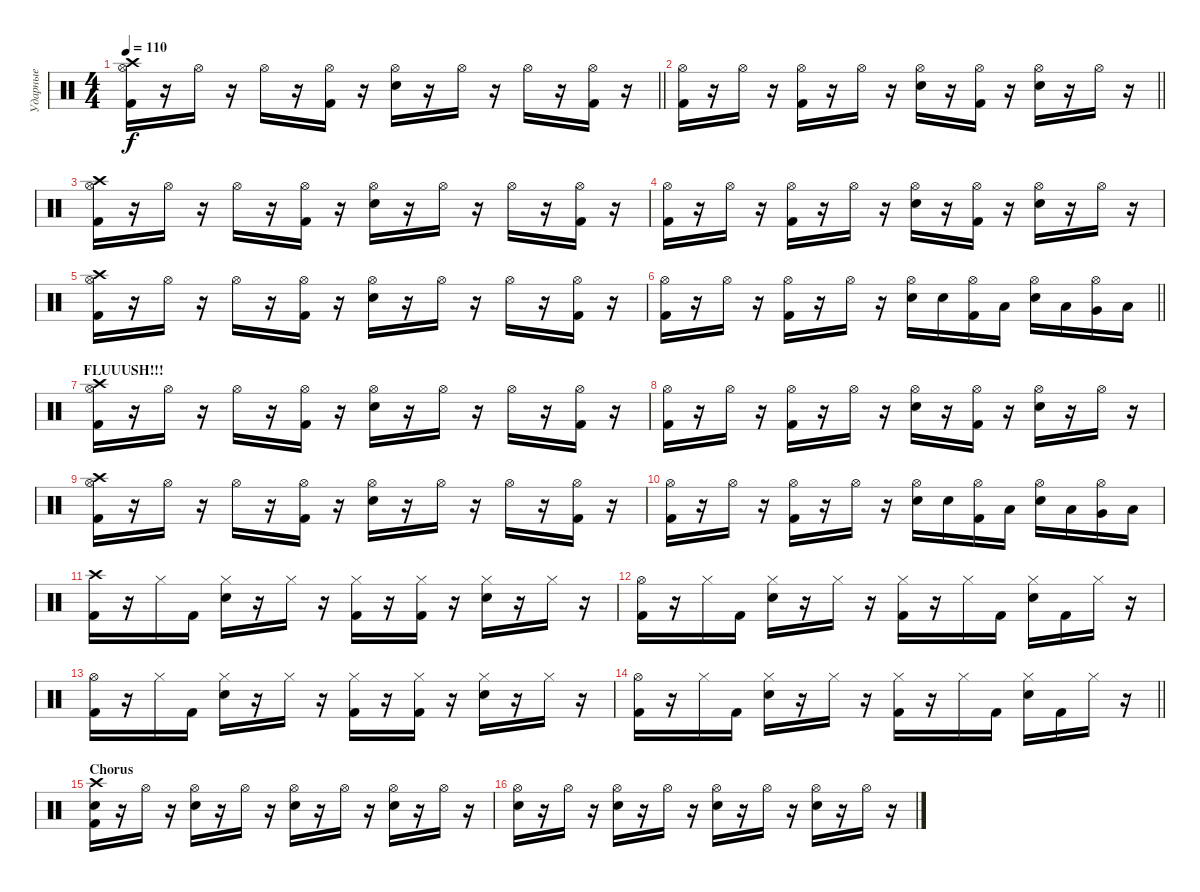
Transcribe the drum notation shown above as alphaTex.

\track ("Ударные" "Ударные") {instrument percussion}
\staff {score}
\articulation defaults
\ts (4 4)
\tempo 110
\clef neutral
\barLineRight lightlight
\ks c
("Crash high (hit)" "Hi-Hat (open)" "Kick (hit) 2").16{dy f} r.16 "Hi-Hat (open)".16 r.16 "Hi-Hat (open)".16 r.16 ("Hi-Hat (open)" "Kick (hit) 2").16 r.16 ("Hi-Hat (open)" "Electric Snare (hit)").16 r.16 "Hi-Hat (open)".16 r.16 "Hi-Hat (open)".16 r.16 ("Hi-Hat (open)" "Kick (hit) 2").16 r.16 |
\barLineRight lightlight
("Hi-Hat (open)" "Kick (hit) 2").16 r.16 "Hi-Hat (open)".16 r.16 ("Hi-Hat (open)" "Kick (hit) 2").16 r.16 "Hi-Hat (open)".16 r.16 ("Hi-Hat (open)" "Electric Snare (hit)").16 r.16 ("Hi-Hat (open)" "Kick (hit) 2").16 r.16 ("Hi-Hat (open)" "Electric Snare (hit)").16 r.16 "Hi-Hat (open)".16 r.16 |
("Crash high (hit)" "Hi-Hat (open)" "Kick (hit) 2").16 r.16 "Hi-Hat (open)".16 r.16 "Hi-Hat (open)".16 r.16 ("Hi-Hat (open)" "Kick (hit) 2").16 r.16 ("Hi-Hat (open)" "Electric Snare (hit)").16 r.16 "Hi-Hat (open)".16 r.16 "Hi-Hat (open)".16 r.16 ("Hi-Hat (open)" "Kick (hit) 2").16 r.16 |
("Hi-Hat (open)" "Kick (hit) 2").16 r.16 "Hi-Hat (open)".16 r.16 ("Hi-Hat (open)" "Kick (hit) 2").16 r.16 "Hi-Hat (open)".16 r.16 ("Hi-Hat (open)" "Electric Snare (hit)").16 r.16 ("Hi-Hat (open)" "Kick (hit) 2").16 r.16 ("Hi-Hat (open)" "Electric Snare (hit)").16 r.16 "Hi-Hat (open)".16 r.16 |
("Crash high (hit)" "Hi-Hat (open)" "Kick (hit) 2").16 r.16 "Hi-Hat (open)".16 r.16 "Hi-Hat (open)".16 r.16 ("Hi-Hat (open)" "Kick (hit) 2").16 r.16 ("Hi-Hat (open)" "Electric Snare (hit)").16 r.16 "Hi-Hat (open)".16 r.16 "Hi-Hat (open)".16 r.16 ("Hi-Hat (open)" "Kick (hit) 2").16 r.16 |
\barLineRight lightlight
("Hi-Hat (open)" "Kick (hit) 2").16 r.16 "Hi-Hat (open)".16 r.16 ("Hi-Hat (open)" "Kick (hit) 2").16 r.16 "Hi-Hat (open)".16 r.16 ("Hi-Hat (open)" "Electric Snare (hit)").16 "Electric Snare (hit)".16 ("Hi-Hat (open)" "Kick (hit) 2").16 "Low Floor Tom (hit)".16 ("Hi-Hat (open)" "Electric Snare (hit)").16 "Low Tom (hit)".16 ("Hi-Hat (open)" "Very Low Tom (hit)").16 "Low Floor Tom (hit)".16 |
\section ("" "FLUUUSH!!!")
("Crash high (hit)" "Hi-Hat (open)" "Kick (hit) 2").16 r.16 "Hi-Hat (open)".16 r.16 "Hi-Hat (open)".16 r.16 ("Hi-Hat (open)" "Kick (hit) 2").16 r.16 ("Hi-Hat (open)" "Electric Snare (hit)").16 r.16 "Hi-Hat (open)".16 r.16 "Hi-Hat (open)".16 r.16 ("Hi-Hat (open)" "Kick (hit) 2").16 r.16 |
("Hi-Hat (open)" "Kick (hit) 2").16 r.16 "Hi-Hat (open)".16 r.16 ("Hi-Hat (open)" "Kick (hit) 2").16 r.16 "Hi-Hat (open)".16 r.16 ("Hi-Hat (open)" "Electric Snare (hit)").16 r.16 ("Hi-Hat (open)" "Kick (hit) 2").16 r.16 ("Hi-Hat (open)" "Electric Snare (hit)").16 r.16 "Hi-Hat (open)".16 r.16 |
("Crash high (hit)" "Hi-Hat (open)" "Kick (hit) 2").16 r.16 "Hi-Hat (open)".16 r.16 "Hi-Hat (open)".16 r.16 ("Hi-Hat (open)" "Kick (hit) 2").16 r.16 ("Hi-Hat (open)" "Electric Snare (hit)").16 r.16 "Hi-Hat (open)".16 r.16 "Hi-Hat (open)".16 r.16 ("Hi-Hat (open)" "Kick (hit) 2").16 r.16 |
("Hi-Hat (open)" "Kick (hit) 2").16 r.16 "Hi-Hat (open)".16 r.16 ("Hi-Hat (open)" "Kick (hit) 2").16 r.16 "Hi-Hat (open)".16 r.16 ("Hi-Hat (open)" "Electric Snare (hit)").16 "Electric Snare (hit)".16 ("Hi-Hat (open)" "Kick (hit) 2").16 "Low Floor Tom (hit)".16 ("Hi-Hat (open)" "Electric Snare (hit)").16 "Low Tom (hit)".16 ("Hi-Hat (open)" "Very Low Tom (hit)").16 "Low Floor Tom (hit)".16 |
("Crash high (hit)" "Kick (hit) 2").16 r.16 "Hi-Hat (closed)".16 "Kick (hit) 2".16 ("Hi-Hat (closed)" "Electric Snare (hit)").16 r.16 "Hi-Hat (closed)".16 r.16 ("Hi-Hat (closed)" "Kick (hit) 2").16 r.16 ("Hi-Hat (closed)" "Kick (hit) 2").16 r.16 ("Hi-Hat (closed)" "Electric Snare (hit)").16 r.16 "Hi-Hat (closed)".16 r.16 |
("Hi-Hat (open)" "Kick (hit) 2").16 r.16 "Hi-Hat (closed)".16 "Kick (hit) 2".16 ("Hi-Hat (closed)" "Electric Snare (hit)").16 r.16 "Hi-Hat (closed)".16 r.16 ("Hi-Hat (closed)" "Kick (hit) 2").16 r.16 "Hi-Hat (closed)".16 "Kick (hit) 2".16 ("Hi-Hat (closed)" "Electric Snare (hit)").16 "Kick (hit) 2".16 "Hi-Hat (closed)".16 r.16 |
("Hi-Hat (open)" "Kick (hit) 2").16 r.16 "Hi-Hat (closed)".16 "Kick (hit) 2".16 ("Hi-Hat (closed)" "Electric Snare (hit)").16 r.16 "Hi-Hat (closed)".16 r.16 ("Hi-Hat (closed)" "Kick (hit) 2").16 r.16 ("Hi-Hat (closed)" "Kick (hit) 2").16 r.16 ("Hi-Hat (closed)" "Electric Snare (hit)").16 r.16 "Hi-Hat (closed)".16 r.16 |
\barLineRight lightlight
("Hi-Hat (open)" "Kick (hit) 2").16 r.16 "Hi-Hat (closed)".16 "Kick (hit) 2".16 ("Hi-Hat (closed)" "Electric Snare (hit)").16 r.16 "Hi-Hat (closed)".16 r.16 ("Hi-Hat (closed)" "Kick (hit) 2").16 r.16 "Hi-Hat (closed)".16 "Kick (hit) 2".16 ("Hi-Hat (closed)" "Electric Snare (hit)").16 "Kick (hit) 2".16 "Hi-Hat (closed)".16 r.16 |
\section ("" "Chorus")
("Crash high (hit)" "Electric Snare (hit)" "Kick (hit) 2").16 r.16 "Hi-Hat (open)".16 r.16 ("Hi-Hat (open)" "Electric Snare (hit)").16 r.16 "Hi-Hat (open)".16 r.16 ("Hi-Hat (open)" "Electric Snare (hit)").16 r.16 "Hi-Hat (open)".16 r.16 ("Hi-Hat (open)" "Electric Snare (hit)").16 r.16 "Hi-Hat (open)".16 r.16 |
("Hi-Hat (open)" "Electric Snare (hit)").16 r.16 "Hi-Hat (open)".16 r.16 ("Hi-Hat (open)" "Electric Snare (hit)").16 r.16 "Hi-Hat (open)".16 r.16 ("Hi-Hat (open)" "Electric Snare (hit)").16 r.16 "Hi-Hat (open)".16 r.16 ("Hi-Hat (open)" "Electric Snare (hit)").16 r.16 "Hi-Hat (open)".16 r.16
